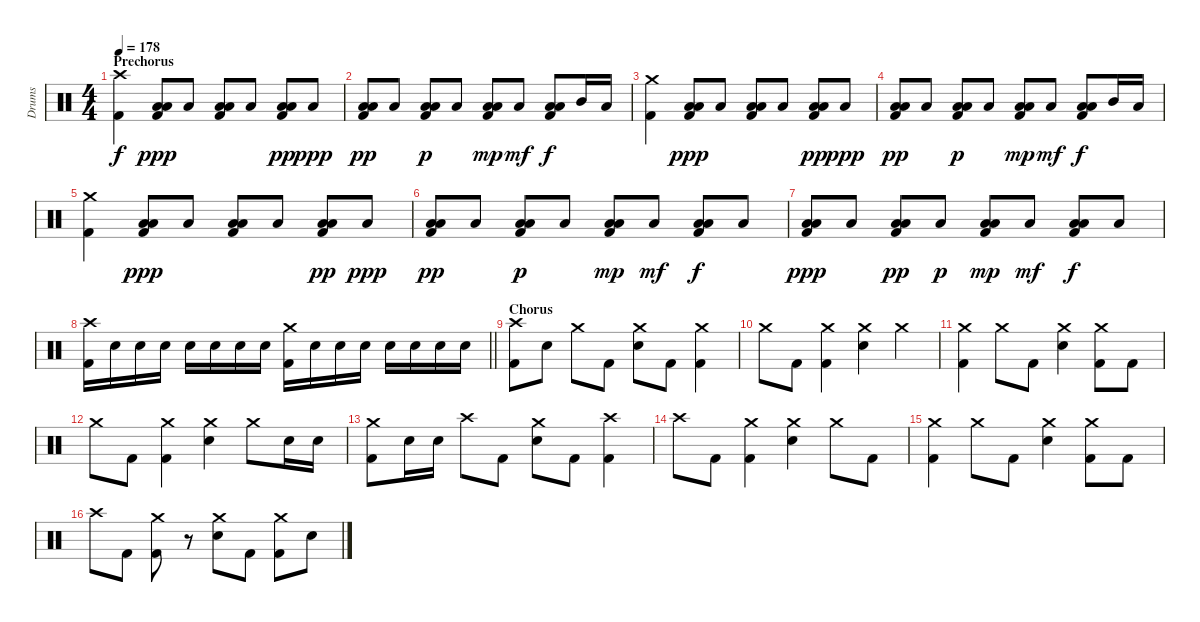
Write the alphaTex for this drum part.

\track ("Drums" "Drums") {instrument percussion}
\staff {score}
\articulation defaults
\ts (4 4)
\section ("" "Prechorus")
\tempo 178
\clef neutral
\ks c
("Crash high (hit)" "Kick (hit) 2").4{dy f} ("Low Tom (hit)" "Low Floor Tom (hit)" "Kick (hit) 2").8{dy ppp} "Low Floor Tom (hit)".8 ("Low Tom (hit)" "Low Floor Tom (hit)" "Kick (hit) 2").8 "Low Floor Tom (hit)".8 ("Low Tom (hit)" "Low Floor Tom (hit)" "Kick (hit) 2").8{dy pp} "Low Floor Tom (hit)".8{dy ppp} |
("Low Tom (hit)" "Low Floor Tom (hit)" "Kick (hit) 2").8{dy pp} "Low Floor Tom (hit)".8 ("Low Tom (hit)" "Low Floor Tom (hit)" "Kick (hit) 2").8{dy p} "Low Floor Tom (hit)".8 ("Low Tom (hit)" "Low Floor Tom (hit)" "Kick (hit) 2").8{dy mp} "Low Floor Tom (hit)".8{dy mf} ("Low Tom (hit)" "Low Floor Tom (hit)" "Kick (hit) 2").8{dy f} "Mid Tom (hit)".16 "Low Tom (hit)".16 |
("Crash medium (hit)" "Kick (hit) 2").4 ("Low Tom (hit)" "Low Floor Tom (hit)" "Kick (hit) 2").8{dy ppp} "Low Floor Tom (hit)".8 ("Low Tom (hit)" "Low Floor Tom (hit)" "Kick (hit) 2").8 "Low Floor Tom (hit)".8 ("Low Tom (hit)" "Low Floor Tom (hit)" "Kick (hit) 2").8{dy pp} "Low Floor Tom (hit)".8{dy ppp} |
("Low Tom (hit)" "Low Floor Tom (hit)" "Kick (hit) 2").8{dy pp} "Low Floor Tom (hit)".8 ("Low Tom (hit)" "Low Floor Tom (hit)" "Kick (hit) 2").8{dy p} "Low Floor Tom (hit)".8 ("Low Tom (hit)" "Low Floor Tom (hit)" "Kick (hit) 2").8{dy mp} "Low Floor Tom (hit)".8{dy mf} ("Low Tom (hit)" "Low Floor Tom (hit)" "Kick (hit) 2").8{dy f} "Mid Tom (hit)".16 "Low Tom (hit)".16 |
("Crash medium (hit)" "Kick (hit) 2").4 ("Low Tom (hit)" "Low Floor Tom (hit)" "Kick (hit) 2").8{dy ppp} "Low Floor Tom (hit)".8 ("Low Tom (hit)" "Low Floor Tom (hit)" "Kick (hit) 2").8 "Low Floor Tom (hit)".8 ("Low Tom (hit)" "Low Floor Tom (hit)" "Kick (hit) 2").8{dy pp} "Low Floor Tom (hit)".8{dy ppp} |
("Low Tom (hit)" "Low Floor Tom (hit)" "Kick (hit) 2").8{dy pp} "Low Floor Tom (hit)".8 ("Low Tom (hit)" "Low Floor Tom (hit)" "Kick (hit) 2").8{dy p} "Low Floor Tom (hit)".8 ("Low Tom (hit)" "Low Floor Tom (hit)" "Kick (hit) 2").8{dy mp} "Low Floor Tom (hit)".8{dy mf} ("Low Tom (hit)" "Low Floor Tom (hit)" "Kick (hit) 2").8{dy f} "Low Floor Tom (hit)".8 |
("Low Tom (hit)" "Low Floor Tom (hit)" "Kick (hit) 2").8{dy ppp} "Low Floor Tom (hit)".8 ("Low Tom (hit)" "Low Floor Tom (hit)" "Kick (hit) 2").8{dy pp} "Low Floor Tom (hit)".8{dy p} ("Low Tom (hit)" "Low Floor Tom (hit)" "Kick (hit) 2").8{dy mp} "Low Floor Tom (hit)".8{dy mf} ("Low Tom (hit)" "Low Floor Tom (hit)" "Kick (hit) 2").8{dy f} "Low Floor Tom (hit)".8 |
\barLineRight lightlight
("Crash high (hit)" "Kick (hit) 2").16 "Electric Snare (hit)".16 "Electric Snare (hit)".16 "Electric Snare (hit)".16 "Electric Snare (hit)".16 "Electric Snare (hit)".16 "Electric Snare (hit)".16 "Electric Snare (hit)".16 ("Crash medium (hit)" "Kick (hit) 2").16 "Electric Snare (hit)".16 "Electric Snare (hit)".16 "Electric Snare (hit)".16 "Electric Snare (hit)".16 "Electric Snare (hit)".16 "Electric Snare (hit)".16 "Electric Snare (hit)".16 |
\section ("" "Chorus")
("Crash high (hit)" "Kick (hit) 2").8 "Electric Snare (hit)".8 "Crash medium (hit)".8 "Kick (hit) 2".8 ("Crash medium (hit)" "Electric Snare (hit)").8 "Kick (hit) 2".8 ("Crash medium (hit)" "Kick (hit) 2").4 |
"Crash medium (hit)".8 "Kick (hit) 2".8 ("Crash medium (hit)" "Kick (hit) 2").4 ("Crash medium (hit)" "Electric Snare (hit)").4 "Crash medium (hit)".4 |
("Crash medium (hit)" "Kick (hit) 2").4 "Crash medium (hit)".8 "Kick (hit) 2".8 ("Crash medium (hit)" "Electric Snare (hit)").4 ("Crash medium (hit)" "Kick (hit) 2").8 "Kick (hit) 2".8 |
"Crash medium (hit)".8 "Kick (hit) 2".8 ("Crash medium (hit)" "Kick (hit) 2").4 ("Crash medium (hit)" "Electric Snare (hit)").4 "Crash medium (hit)".8 "Electric Snare (hit)".16 "Electric Snare (hit)".16 |
("Crash medium (hit)" "Kick (hit) 2").8 "Electric Snare (hit)".16 "Electric Snare (hit)".16 "Crash high (hit)".8 "Kick (hit) 2".8 ("Crash medium (hit)" "Electric Snare (hit)").8 "Kick (hit) 2".8 ("Crash high (hit)" "Kick (hit) 2").4 |
"Crash high (hit)".8 "Kick (hit) 2".8 ("Crash medium (hit)" "Kick (hit) 2").4 ("Crash medium (hit)" "Electric Snare (hit)").4 "Crash medium (hit)".8 "Kick (hit) 2".8 |
("Crash medium (hit)" "Kick (hit) 2").4 "Crash medium (hit)".8 "Kick (hit) 2".8 ("Crash medium (hit)" "Electric Snare (hit)").4 ("Crash medium (hit)" "Kick (hit) 2").8 "Kick (hit) 2".8 |
"Crash high (hit)".8 "Kick (hit) 2".8 ("Crash medium (hit)" "Kick (hit) 2").8 r.8 ("Crash medium (hit)" "Electric Snare (hit)").8 "Kick (hit) 2".8 ("Crash medium (hit)" "Kick (hit) 2").8 "Electric Snare (hit)".8
